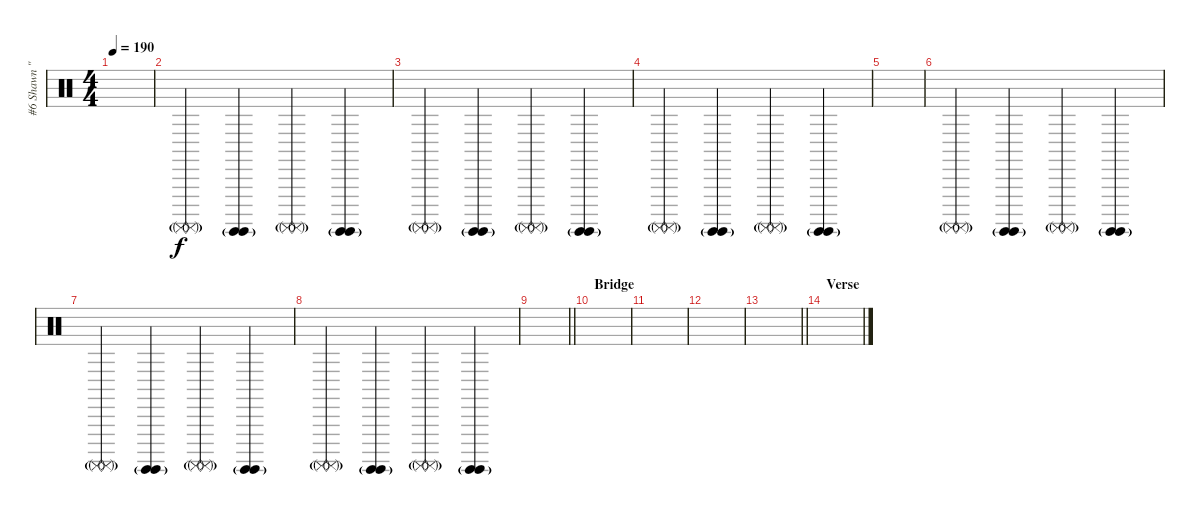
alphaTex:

\track ("#6 Shawn \"Clown\" Crahan" "#6 Shawn \"") {instrument percussion}
\staff {score}
\articulation defaults
\ts (4 4)
\tempo 190
\clef neutral
\ks c
|
("Surdo (mute)"{g} "Surdo (mute)"{g}).4 ("Surdo (hit)"{g} "Surdo (hit)"{g}).4 ("Surdo (mute)"{g} "Surdo (mute)"{g}).4 ("Surdo (hit)"{g} "Surdo (hit)"{g}).4 |
("Surdo (mute)"{g} "Surdo (mute)"{g}).4 ("Surdo (hit)"{g} "Surdo (hit)"{g}).4 ("Surdo (mute)"{g} "Surdo (mute)"{g}).4 ("Surdo (hit)"{g} "Surdo (hit)"{g}).4 |
("Surdo (mute)"{g} "Surdo (mute)"{g}).4 ("Surdo (hit)"{g} "Surdo (hit)"{g}).4 ("Surdo (mute)"{g} "Surdo (mute)"{g}).4 ("Surdo (hit)"{g} "Surdo (hit)"{g}).4 |
|
("Surdo (mute)"{g} "Surdo (mute)"{g}).4 ("Surdo (hit)"{g} "Surdo (hit)"{g}).4 ("Surdo (mute)"{g} "Surdo (mute)"{g}).4 ("Surdo (hit)"{g} "Surdo (hit)"{g}).4 |
("Surdo (mute)"{g} "Surdo (mute)"{g}).4 ("Surdo (hit)"{g} "Surdo (hit)"{g}).4 ("Surdo (mute)"{g} "Surdo (mute)"{g}).4 ("Surdo (hit)"{g} "Surdo (hit)"{g}).4 |
("Surdo (mute)"{g} "Surdo (mute)"{g}).4 ("Surdo (hit)"{g} "Surdo (hit)"{g}).4 ("Surdo (mute)"{g} "Surdo (mute)"{g}).4 ("Surdo (hit)"{g} "Surdo (hit)"{g}).4 |
\barLineRight lightlight
|
\section ("" "Bridge")
|
|
|
\barLineRight lightlight
|
\section ("" "Verse")
